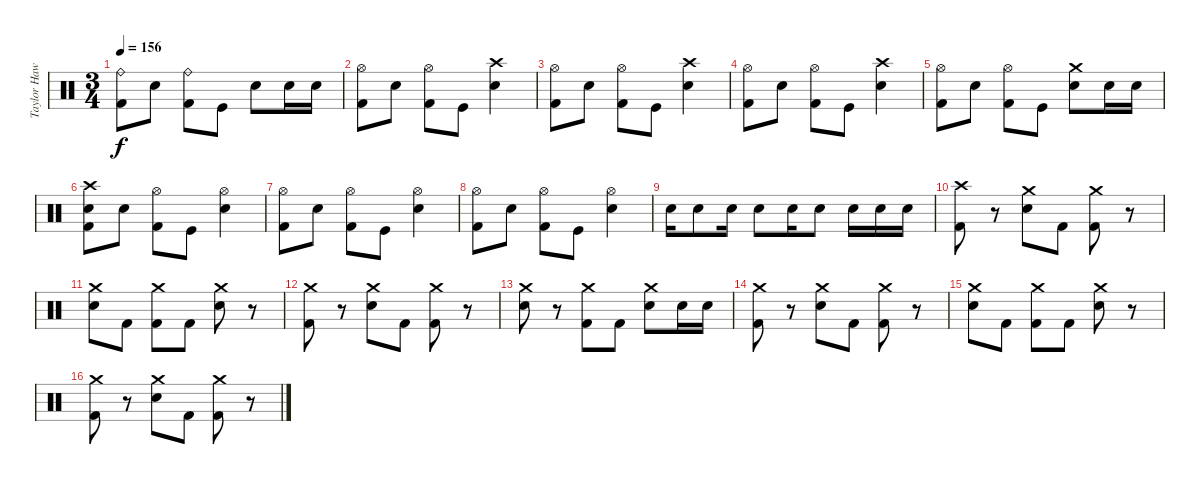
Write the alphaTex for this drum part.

\track ("Taylor Hawkins" "Taylor Haw") {instrument percussion}
\staff {score}
\articulation defaults
\ts (3 4)
\tempo 156
\clef neutral
\ks c
("Ride (bell)" "Kick (hit) 2").8{dy f} "Electric Snare (hit)".8 ("Ride (bell)" "Kick (hit) 2").8 "Kick (hit)".8 "Electric Snare (hit)".8 "Electric Snare (hit)".16 "Electric Snare (hit)".16 |
("Hi-Hat (open)" "Kick (hit) 2").8 "Electric Snare (hit)".8 ("Hi-Hat (open)" "Kick (hit) 2").8 "Kick (hit)".8 ("Crash high (hit)" "Electric Snare (hit)").4 |
("Hi-Hat (open)" "Kick (hit) 2").8 "Electric Snare (hit)".8 ("Hi-Hat (open)" "Kick (hit) 2").8 "Kick (hit)".8 ("Crash high (hit)" "Electric Snare (hit)").4 |
("Hi-Hat (open)" "Kick (hit) 2").8 "Electric Snare (hit)".8 ("Hi-Hat (open)" "Kick (hit) 2").8 "Kick (hit)".8 ("Crash high (hit)" "Electric Snare (hit)").4 |
("Hi-Hat (open)" "Kick (hit) 2").8 "Electric Snare (hit)".8 ("Hi-Hat (open)" "Kick (hit) 2").8 "Kick (hit)".8 ("Crash medium (hit)" "Electric Snare (hit)").8 "Electric Snare (hit)".16 "Electric Snare (hit)".16 |
("Crash high (hit)" "Electric Snare (hit)" "Kick (hit) 2").8 "Electric Snare (hit)".8 ("Hi-Hat (open)" "Kick (hit) 2").8 "Kick (hit)".8 ("Hi-Hat (open)" "Electric Snare (hit)").4 |
("Hi-Hat (open)" "Kick (hit) 2").8 "Electric Snare (hit)".8 ("Hi-Hat (open)" "Kick (hit) 2").8 "Kick (hit)".8 ("Hi-Hat (open)" "Electric Snare (hit)").4 |
("Hi-Hat (open)" "Kick (hit) 2").8 "Electric Snare (hit)".8 ("Hi-Hat (open)" "Kick (hit) 2").8 "Kick (hit)".8 ("Hi-Hat (open)" "Electric Snare (hit)").4 |
"Electric Snare (hit)".16 "Electric Snare (hit)".8 "Electric Snare (hit)".16 "Electric Snare (hit)".8 "Electric Snare (hit)".16 "Electric Snare (hit)".8 "Electric Snare (hit)".16 "Electric Snare (hit)".16 "Electric Snare (hit)".16 |
("Crash high (hit)" "Kick (hit) 2").8 r.8 ("Crash medium (hit)" "Electric Snare (hit)").8 "Kick (hit) 2".8 ("Crash medium (hit)" "Kick (hit) 2").8 r.8 |
("Crash medium (hit)" "Electric Snare (hit)").8 "Kick (hit) 2".8 ("Crash medium (hit)" "Kick (hit) 2").8 "Kick (hit) 2".8 ("Crash medium (hit)" "Electric Snare (hit)").8 r.8 |
("Crash medium (hit)" "Kick (hit) 2").8 r.8 ("Crash medium (hit)" "Electric Snare (hit)").8 "Kick (hit) 2".8 ("Crash medium (hit)" "Kick (hit) 2").8 r.8 |
("Crash medium (hit)" "Electric Snare (hit)").8 r.8 ("Crash medium (hit)" "Kick (hit) 2").8 "Kick (hit) 2".8 ("Crash medium (hit)" "Electric Snare (hit)").8 "Electric Snare (hit)".16 "Electric Snare (hit)".16 |
("Crash medium (hit)" "Kick (hit) 2").8 r.8 ("Crash medium (hit)" "Electric Snare (hit)").8 "Kick (hit) 2".8 ("Crash medium (hit)" "Kick (hit) 2").8 r.8 |
("Crash medium (hit)" "Electric Snare (hit)").8 "Kick (hit) 2".8 ("Crash medium (hit)" "Kick (hit) 2").8 "Kick (hit) 2".8 ("Crash medium (hit)" "Electric Snare (hit)").8 r.8 |
("Crash medium (hit)" "Kick (hit) 2").8 r.8 ("Crash medium (hit)" "Electric Snare (hit)").8 "Kick (hit) 2".8 ("Crash medium (hit)" "Kick (hit) 2").8 r.8
